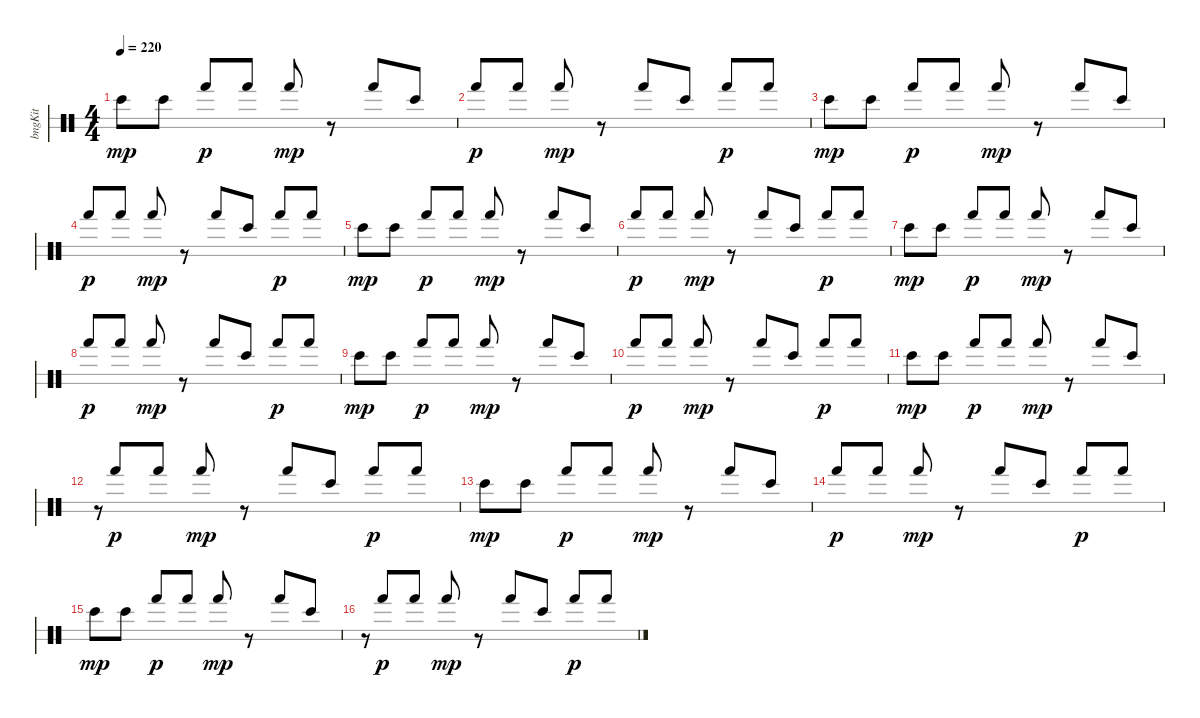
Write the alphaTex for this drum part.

\bracketExtendMode groupsimilarinstruments
\otherSystemsTrackNameOrientation horizontal
\track ("Bongos" "bngKit") {instrument percussion}
\staff {score 2}
\articulation defaults
\ts (4 4)
\tempo 220
\clef neutral
\ks c "Bongo High (hit)".8{dy mp beam Down} "Bongo High (hit)".8{beam Down} "Hand (hit)".8{dy p beam Up} "Hand (hit)".8{beam Up} "Hand (hit)".8{dy mp beam Up}
r.8{beam Up} "Hand (hit)".8{beam Up} "Bongo High (hit)".8{beam Up} |
"Hand (hit)".8{dy p beam Up} "Hand (hit)".8{beam Up} "Hand (hit)".8{dy mp beam Up} r.8{beam Up} "Hand (hit)".8{beam Up} "Bongo High (hit)".8{beam Up} "Hand (hit)".8{dy p beam Up} "Hand (hit)".8{beam Up} |
"Bongo High (hit)".8{dy mp beam Down} "Bongo High (hit)".8{beam Down} "Hand (hit)".8{dy p beam Up} "Hand (hit)".8{beam Up} "Hand (hit)".8{dy mp beam Up} r.8{beam Up} "Hand (hit)".8{beam Up} "Bongo High (hit)".8{beam Up} |
"Hand (hit)".8{dy p beam Up} "Hand (hit)".8{beam Up} "Hand (hit)".8{dy mp beam Up} r.8{beam Up} "Hand (hit)".8{beam Up} "Bongo High (hit)".8{beam Up} "Hand (hit)".8{dy p beam Up} "Hand (hit)".8{beam Up} |
"Bongo High (hit)".8{dy mp beam Down} "Bongo High (hit)".8{beam Down} "Hand (hit)".8{dy p beam Up} "Hand (hit)".8{beam Up} "Hand (hit)".8{dy mp beam Up} r.8{beam Up} "Hand (hit)".8{beam Up} "Bongo High (hit)".8{beam Up} |
"Hand (hit)".8{dy p beam Up} "Hand (hit)".8{beam Up} "Hand (hit)".8{dy mp beam Up} r.8{beam Up} "Hand (hit)".8{beam Up} "Bongo High (hit)".8{beam Up} "Hand (hit)".8{dy p beam Up} "Hand (hit)".8{beam Up} |
"Bongo High (hit)".8{dy mp beam Down} "Bongo High (hit)".8{beam Down} "Hand (hit)".8{dy p beam Up} "Hand (hit)".8{beam Up} "Hand (hit)".8{dy mp beam Up} r.8{beam Up} "Hand (hit)".8{beam Up} "Bongo High (hit)".8{beam Up} |
"Hand (hit)".8{dy p beam Up} "Hand (hit)".8{beam Up} "Hand (hit)".8{dy mp beam Up} r.8{beam Up} "Hand (hit)".8{beam Up} "Bongo High (hit)".8{beam Up} "Hand (hit)".8{dy p beam Up} "Hand (hit)".8{beam Up} |
"Bongo High (hit)".8{dy mp beam Down} "Bongo High (hit)".8{beam Down} "Hand (hit)".8{dy p beam Up} "Hand (hit)".8{beam Up} "Hand (hit)".8{dy mp beam Up} r.8{beam Up} "Hand (hit)".8{beam Up} "Bongo High (hit)".8{beam Up} |
"Hand (hit)".8{dy p beam Up} "Hand (hit)".8{beam Up} "Hand (hit)".8{dy mp beam Up} r.8{beam Up} "Hand (hit)".8{beam Up} "Bongo High (hit)".8{beam Up} "Hand (hit)".8{dy p beam Up} "Hand (hit)".8{beam Up} |
"Bongo High (hit)".8{dy mp beam Down} "Bongo High (hit)".8{beam Down} "Hand (hit)".8{dy p beam Up} "Hand (hit)".8{beam Up} "Hand (hit)".8{dy mp beam Up} r.8{beam Up} "Hand (hit)".8{beam Up} "Bongo High (hit)".8{beam Up} |
r.8{gr beam Up} "Hand (hit)".8{dy p beam Up} "Hand (hit)".8{beam Up} "Hand (hit)".8{dy mp beam Up} r.8{beam Up} "Hand (hit)".8{beam Up} "Bongo High (hit)".8{beam Up} "Hand (hit)".8{dy p beam Up} "Hand (hit)".8{beam Up} |
"Bongo High (hit)".8{dy mp beam Down} "Bongo High (hit)".8{beam Down} "Hand (hit)".8{dy p beam Up} "Hand (hit)".8{beam Up} "Hand (hit)".8{dy mp beam Up} r.8{beam Up} "Hand (hit)".8{beam Up} "Bongo High (hit)".8{beam Up} |
"Hand (hit)".8{dy p beam Up} "Hand (hit)".8{beam Up} "Hand (hit)".8{dy mp beam Up} r.8{beam Up} "Hand (hit)".8{beam Up} "Bongo High (hit)".8{beam Up} "Hand (hit)".8{dy p beam Up} "Hand (hit)".8{beam Up} |
"Bongo High (hit)".8{dy mp beam Down} "Bongo High (hit)".8{beam Down} "Hand (hit)".8{dy p beam Up} "Hand (hit)".8{beam Up} "Hand (hit)".8{dy mp beam Up} r.8{beam Up} "Hand (hit)".8{beam Up} "Bongo High (hit)".8{beam Up} |
r.8{gr beam Up} "Hand (hit)".8{dy p beam Up} "Hand (hit)".8{beam Up} "Hand (hit)".8{dy mp beam Up} r.8{beam Up} "Hand (hit)".8{beam Up} "Bongo High (hit)".8{beam Up} "Hand (hit)".8{dy p beam Up} "Hand (hit)".8{beam Up}
